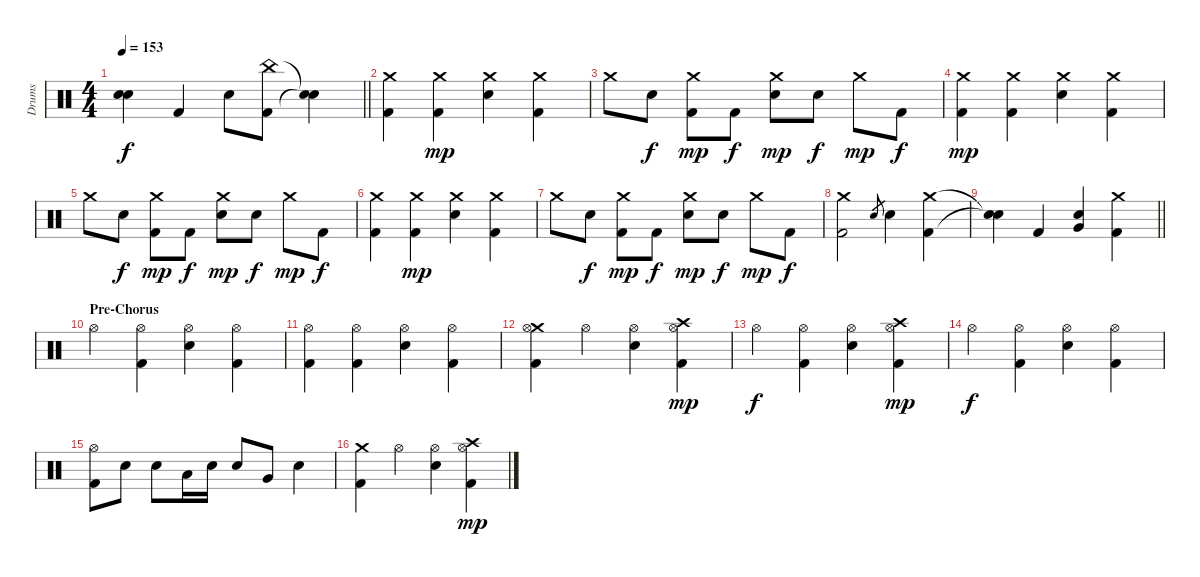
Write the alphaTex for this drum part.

\track ("Drums" "Drums") {instrument percussion}
\staff {score}
\articulation defaults
\ts (4 4)
\tempo 153
\clef neutral
\barLineRight lightlight
\ks c
("Snare (hit)"{t} "Snare (hit)"{t}).4{dy f} "Kick (hit) 2".4 "Snare (hit) 2".8 ("China (hit)" "Kick (hit) 2").8 ("Snare (hit)"{t} "Snare (hit)"{t}).4 |
("Crash medium (hit)" "Kick (hit) 2").4 ("Crash medium (hit)" "Kick (hit) 2").4{dy mp} ("Crash medium (hit)" "Snare (hit) 2").4 ("Crash medium (hit)" "Kick (hit) 2").4 |
"Crash medium (hit)".8 "Snare (hit) 2".8{dy f} ("Crash medium (hit)" "Kick (hit) 2").8{dy mp} "Kick (hit) 2".8{dy f} ("Crash medium (hit)" "Snare (hit) 2").8{dy mp} "Snare (hit) 2".8{dy f} "Crash medium (hit)".8{dy mp} "Kick (hit) 2".8{dy f} |
("Crash medium (hit)" "Kick (hit) 2").4{dy mp} ("Crash medium (hit)" "Kick (hit) 2").4 ("Crash medium (hit)" "Snare (hit) 2").4 ("Crash medium (hit)" "Kick (hit) 2").4 |
"Crash medium (hit)".8 "Snare (hit) 2".8{dy f} ("Crash medium (hit)" "Kick (hit) 2").8{dy mp} "Kick (hit) 2".8{dy f} ("Crash medium (hit)" "Snare (hit) 2").8{dy mp} "Snare (hit) 2".8{dy f} "Crash medium (hit)".8{dy mp} "Kick (hit) 2".8{dy f} |
("Crash medium (hit)" "Kick (hit) 2").4 ("Crash medium (hit)" "Kick (hit) 2").4{dy mp} ("Crash medium (hit)" "Snare (hit) 2").4 ("Crash medium (hit)" "Kick (hit) 2").4 |
"Crash medium (hit)".8 "Snare (hit) 2".8{dy f} ("Crash medium (hit)" "Kick (hit) 2").8{dy mp} "Kick (hit) 2".8{dy f} ("Crash medium (hit)" "Snare (hit) 2").8{dy mp} "Snare (hit) 2".8{dy f} "Crash medium (hit)".8{dy mp} "Kick (hit) 2".8{dy f} |
("Crash medium (hit)" "Kick (hit) 2").2 "Snare (hit) 2".8{gr} "Snare (hit) 2".4 ("Crash medium (hit)" "Kick (hit) 2").4 |
\barLineRight lightlight
("Snare (hit)"{t} "Snare (hit)"{t}).4 "Kick (hit) 2".4 ("Snare (hit) 2" "Very Low Tom (hit)").4 ("Crash medium (hit)" "Kick (hit) 2").4 |
\section ("" "Pre-Chorus")
"Hi-Hat (open)".4 ("Hi-Hat (open)" "Kick (hit) 2").4 ("Hi-Hat (open)" "Snare (hit) 2").4 ("Hi-Hat (open)" "Kick (hit) 2").4 |
("Hi-Hat (open)" "Kick (hit) 2").4 ("Hi-Hat (open)" "Kick (hit) 2").4 ("Hi-Hat (open)" "Snare (hit) 2").4 ("Hi-Hat (open)" "Kick (hit) 2").4 |
("Crash medium (hit)" "Hi-Hat (open)" "Kick (hit) 2").4 "Hi-Hat (open)".4 ("Hi-Hat (open)" "Snare (hit) 2").4 ("Crash high (hit)" "Hi-Hat (open)" "Kick (hit) 2").4{dy mp} |
"Hi-Hat (open)".4{dy f} ("Hi-Hat (open)" "Kick (hit) 2").4 ("Hi-Hat (open)" "Snare (hit) 2").4 ("Crash high (hit)" "Hi-Hat (open)" "Kick (hit) 2").4{dy mp} |
"Hi-Hat (open)".4{dy f} ("Hi-Hat (open)" "Kick (hit) 2").4 ("Hi-Hat (open)" "Snare (hit) 2").4 ("Hi-Hat (open)" "Kick (hit) 2").4 |
("Hi-Hat (open)" "Kick (hit) 2").8 "Snare (hit) 2".8 "Snare (hit) 2".8 "Low Tom (hit)".16 "Snare (hit) 2".16 "Snare (hit) 2".8 "Very Low Tom (hit)".8 "Snare (hit) 2".4 |
("Crash medium (hit)" "Kick (hit) 2").4 "Hi-Hat (open)".4 ("Hi-Hat (open)" "Snare (hit) 2").4 ("Crash high (hit)" "Hi-Hat (open)" "Kick (hit) 2").4{dy mp}
